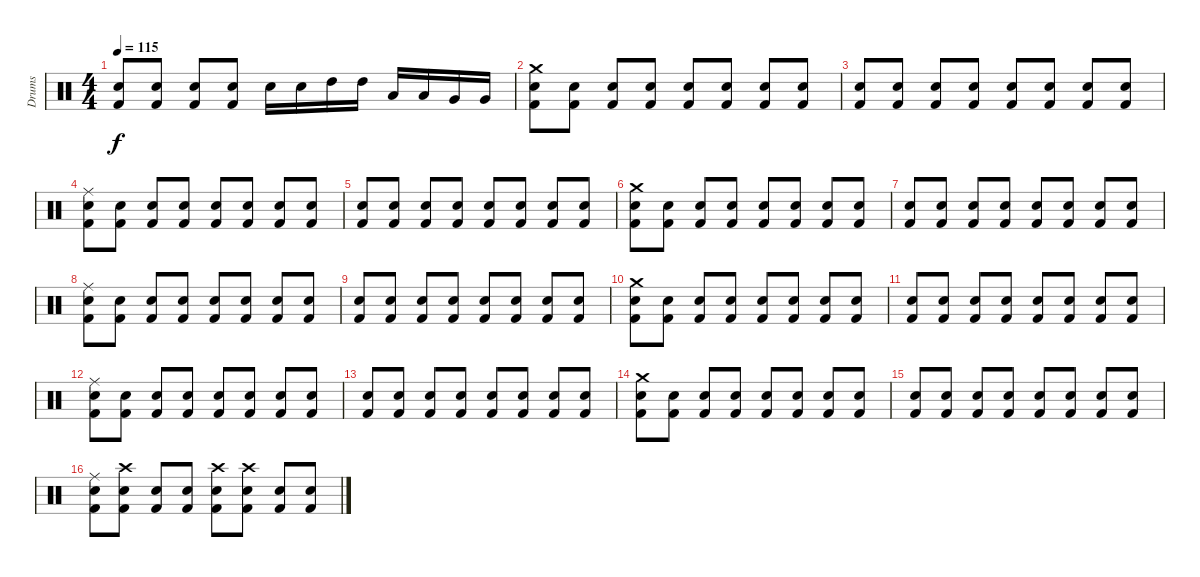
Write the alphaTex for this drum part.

\track ("Drums" "Drums") {instrument percussion}
\staff {score}
\articulation defaults
\ts (4 4)
\tempo 115
\clef neutral
\ks c
("Snare (hit) 2" "Kick (hit) 2").8{dy f} ("Snare (hit) 2" "Kick (hit) 2").8 ("Snare (hit) 2" "Kick (hit) 2").8 ("Snare (hit) 2" "Kick (hit) 2").8 "Snare (hit) 2".16 "Snare (hit) 2".16 "High Tom (hit)".16 "High Tom (hit)".16 "Low Tom (hit)".16 "Low Tom (hit)".16 "Very Low Tom (hit)".16 "Very Low Tom (hit)".16 |
("Crash medium (hit)" "Snare (hit) 2" "Kick (hit) 2").8 ("Snare (hit) 2" "Kick (hit) 2").8 ("Snare (hit) 2" "Kick (hit) 2").8 ("Snare (hit) 2" "Kick (hit) 2").8 ("Snare (hit) 2" "Kick (hit) 2").8 ("Snare (hit) 2" "Kick (hit) 2").8 ("Snare (hit) 2" "Kick (hit) 2").8 ("Snare (hit) 2" "Kick (hit) 2").8 |
("Snare (hit) 2" "Kick (hit) 2").8 ("Snare (hit) 2" "Kick (hit) 2").8 ("Snare (hit) 2" "Kick (hit) 2").8 ("Snare (hit) 2" "Kick (hit) 2").8 ("Snare (hit) 2" "Kick (hit) 2").8 ("Snare (hit) 2" "Kick (hit) 2").8 ("Snare (hit) 2" "Kick (hit) 2").8 ("Snare (hit) 2" "Kick (hit) 2").8 |
("Ride (middle)" "Snare (hit) 2" "Kick (hit) 2").8 ("Snare (hit) 2" "Kick (hit) 2").8 ("Snare (hit) 2" "Kick (hit) 2").8 ("Snare (hit) 2" "Kick (hit) 2").8 ("Snare (hit) 2" "Kick (hit) 2").8 ("Snare (hit) 2" "Kick (hit) 2").8 ("Snare (hit) 2" "Kick (hit) 2").8 ("Snare (hit) 2" "Kick (hit) 2").8 |
("Snare (hit) 2" "Kick (hit) 2").8 ("Snare (hit) 2" "Kick (hit) 2").8 ("Snare (hit) 2" "Kick (hit) 2").8 ("Snare (hit) 2" "Kick (hit) 2").8 ("Snare (hit) 2" "Kick (hit) 2").8 ("Snare (hit) 2" "Kick (hit) 2").8 ("Snare (hit) 2" "Kick (hit) 2").8 ("Snare (hit) 2" "Kick (hit) 2").8 |
("Crash medium (hit)" "Snare (hit) 2" "Kick (hit) 2").8 ("Snare (hit) 2" "Kick (hit) 2").8 ("Snare (hit) 2" "Kick (hit) 2").8 ("Snare (hit) 2" "Kick (hit) 2").8 ("Snare (hit) 2" "Kick (hit) 2").8 ("Snare (hit) 2" "Kick (hit) 2").8 ("Snare (hit) 2" "Kick (hit) 2").8 ("Snare (hit) 2" "Kick (hit) 2").8 |
("Snare (hit) 2" "Kick (hit) 2").8 ("Snare (hit) 2" "Kick (hit) 2").8 ("Snare (hit) 2" "Kick (hit) 2").8 ("Snare (hit) 2" "Kick (hit) 2").8 ("Snare (hit) 2" "Kick (hit) 2").8 ("Snare (hit) 2" "Kick (hit) 2").8 ("Snare (hit) 2" "Kick (hit) 2").8 ("Snare (hit) 2" "Kick (hit) 2").8 |
("Ride (middle)" "Snare (hit) 2" "Kick (hit) 2").8 ("Snare (hit) 2" "Kick (hit) 2").8 ("Snare (hit) 2" "Kick (hit) 2").8 ("Snare (hit) 2" "Kick (hit) 2").8 ("Snare (hit) 2" "Kick (hit) 2").8 ("Snare (hit) 2" "Kick (hit) 2").8 ("Snare (hit) 2" "Kick (hit) 2").8 ("Snare (hit) 2" "Kick (hit) 2").8 |
("Snare (hit) 2" "Kick (hit) 2").8 ("Snare (hit) 2" "Kick (hit) 2").8 ("Snare (hit) 2" "Kick (hit) 2").8 ("Snare (hit) 2" "Kick (hit) 2").8 ("Snare (hit) 2" "Kick (hit) 2").8 ("Snare (hit) 2" "Kick (hit) 2").8 ("Snare (hit) 2" "Kick (hit) 2").8 ("Snare (hit) 2" "Kick (hit) 2").8 |
("Crash medium (hit)" "Snare (hit) 2" "Kick (hit) 2").8 ("Snare (hit) 2" "Kick (hit) 2").8 ("Snare (hit) 2" "Kick (hit) 2").8 ("Snare (hit) 2" "Kick (hit) 2").8 ("Snare (hit) 2" "Kick (hit) 2").8 ("Snare (hit) 2" "Kick (hit) 2").8 ("Snare (hit) 2" "Kick (hit) 2").8 ("Snare (hit) 2" "Kick (hit) 2").8 |
("Snare (hit) 2" "Kick (hit) 2").8 ("Snare (hit) 2" "Kick (hit) 2").8 ("Snare (hit) 2" "Kick (hit) 2").8 ("Snare (hit) 2" "Kick (hit) 2").8 ("Snare (hit) 2" "Kick (hit) 2").8 ("Snare (hit) 2" "Kick (hit) 2").8 ("Snare (hit) 2" "Kick (hit) 2").8 ("Snare (hit) 2" "Kick (hit) 2").8 |
("Ride (middle)" "Snare (hit) 2" "Kick (hit) 2").8 ("Snare (hit) 2" "Kick (hit) 2").8 ("Snare (hit) 2" "Kick (hit) 2").8 ("Snare (hit) 2" "Kick (hit) 2").8 ("Snare (hit) 2" "Kick (hit) 2").8 ("Snare (hit) 2" "Kick (hit) 2").8 ("Snare (hit) 2" "Kick (hit) 2").8 ("Snare (hit) 2" "Kick (hit) 2").8 |
("Snare (hit) 2" "Kick (hit) 2").8 ("Snare (hit) 2" "Kick (hit) 2").8 ("Snare (hit) 2" "Kick (hit) 2").8 ("Snare (hit) 2" "Kick (hit) 2").8 ("Snare (hit) 2" "Kick (hit) 2").8 ("Snare (hit) 2" "Kick (hit) 2").8 ("Snare (hit) 2" "Kick (hit) 2").8 ("Snare (hit) 2" "Kick (hit) 2").8 |
("Crash medium (hit)" "Snare (hit) 2" "Kick (hit) 2").8 ("Snare (hit) 2" "Kick (hit) 2").8 ("Snare (hit) 2" "Kick (hit) 2").8 ("Snare (hit) 2" "Kick (hit) 2").8 ("Snare (hit) 2" "Kick (hit) 2").8 ("Snare (hit) 2" "Kick (hit) 2").8 ("Snare (hit) 2" "Kick (hit) 2").8 ("Snare (hit) 2" "Kick (hit) 2").8 |
("Snare (hit) 2" "Kick (hit) 2").8 ("Snare (hit) 2" "Kick (hit) 2").8 ("Snare (hit) 2" "Kick (hit) 2").8 ("Snare (hit) 2" "Kick (hit) 2").8 ("Snare (hit) 2" "Kick (hit) 2").8 ("Snare (hit) 2" "Kick (hit) 2").8 ("Snare (hit) 2" "Kick (hit) 2").8 ("Snare (hit) 2" "Kick (hit) 2").8 |
("Ride (middle)" "Snare (hit) 2" "Kick (hit) 2").8 ("Crash high (hit)" "Snare (hit) 2" "Kick (hit) 2").8 ("Snare (hit) 2" "Kick (hit) 2").8 ("Snare (hit) 2" "Kick (hit) 2").8 ("Crash high (hit)" "Snare (hit) 2" "Kick (hit) 2").8 ("Crash high (hit)" "Snare (hit) 2" "Kick (hit) 2").8 ("Snare (hit) 2" "Kick (hit) 2").8 ("Snare (hit) 2" "Kick (hit) 2").8
